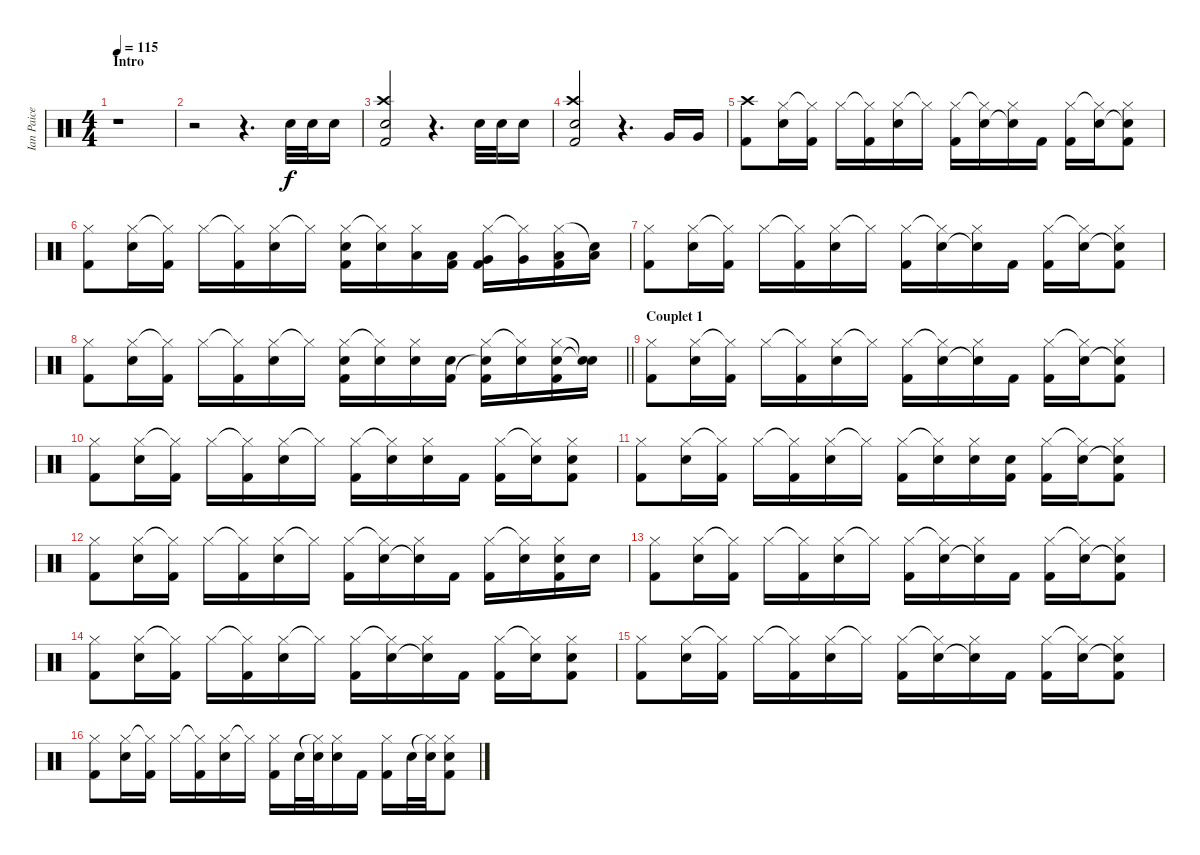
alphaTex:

\track ("Ian Paice" "Ian Paice") {instrument percussion}
\staff {score}
\articulation defaults
\ts (4 4)
\section ("" "Intro")
\tempo 115
\clef neutral
\ks c
r.1{dy f} |
r.2 r.4{d} "Snare (hit) 2".32 "Snare (hit) 2".32 "Snare (hit) 2".16 |
("Crash high (hit)" "Snare (hit) 2" "Kick (hit) 2").2 r.4{d} "Snare (hit) 2".32 "Snare (hit) 2".32 "Snare (hit) 2".16 |
("Crash high (hit)" "Snare (hit) 2" "Kick (hit) 2").2 r.4{d} "Very Low Tom (hit)".16 "Very Low Tom (hit)".16 |
("Crash high (hit)" "Kick (hit) 2").8 ("Hi-Hat (closed)" "Snare (hit) 2").16 ("Hi-Hat (closed)"{t} "Kick (hit) 2").16 "Hi-Hat (closed)".16 ("Hi-Hat (closed)"{t} "Kick (hit) 2").16 ("Hi-Hat (closed)" "Snare (hit) 2").16 "Hi-Hat (closed)"{t}.16 ("Hi-Hat (closed)" "Kick (hit) 2").16 ("Hi-Hat (closed)"{t} "Snare (hit) 2").16 ("Hi-Hat (closed)" "Snare (hit) 2"{t}).16 "Kick (hit) 2".16 ("Hi-Hat (closed)" "Kick (hit) 2").16 ("Hi-Hat (closed)"{t} "Snare (hit) 2").16 ("Hi-Hat (closed)" "Snare (hit) 2"{t} "Kick (hit) 2").8 |
("Hi-Hat (closed)" "Kick (hit) 2").8 ("Hi-Hat (closed)" "Snare (hit) 2").16 ("Hi-Hat (closed)"{t} "Kick (hit) 2").16 "Hi-Hat (closed)".16 ("Hi-Hat (closed)"{t} "Kick (hit) 2").16 ("Hi-Hat (closed)" "Snare (hit) 2").16 "Hi-Hat (closed)"{t}.16 ("Hi-Hat (closed)" "Snare (hit) 2" "Kick (hit) 2").16 ("Hi-Hat (closed)"{t} "Snare (hit) 2").16 ("Hi-Hat (closed)" "Low Tom (hit)").16 ("Low Tom (hit)" "Kick (hit) 2").16 ("Hi-Hat (closed)" "Very Low Tom (hit)" "Kick (hit) 2").16 ("Hi-Hat (closed)"{t} "Very Low Tom (hit)").16 ("Hi-Hat (closed)" "Low Floor Tom (hit)" "Kick (hit) 2").16 ("Snare (hit)"{t} "Low Floor Tom (hit)").16 |
("Hi-Hat (closed)" "Kick (hit) 2").8 ("Hi-Hat (closed)" "Snare (hit) 2").16 ("Hi-Hat (closed)"{t} "Kick (hit) 2").16 "Hi-Hat (closed)".16 ("Hi-Hat (closed)"{t} "Kick (hit) 2").16 ("Hi-Hat (closed)" "Snare (hit) 2").16 "Hi-Hat (closed)"{t}.16 ("Hi-Hat (closed)" "Kick (hit) 2").16 ("Hi-Hat (closed)"{t} "Snare (hit) 2").16 ("Hi-Hat (closed)" "Snare (hit) 2"{t}).16 "Kick (hit) 2".16 ("Hi-Hat (closed)" "Kick (hit) 2").16 ("Hi-Hat (closed)"{t} "Snare (hit) 2").16 ("Hi-Hat (closed)" "Snare (hit) 2"{t} "Kick (hit) 2").8 |
\barLineRight lightlight
("Hi-Hat (closed)" "Kick (hit) 2").8 ("Hi-Hat (closed)" "Snare (hit) 2").16 ("Hi-Hat (closed)"{t} "Kick (hit) 2").16 "Hi-Hat (closed)".16 ("Hi-Hat (closed)"{t} "Kick (hit) 2").16 ("Hi-Hat (closed)" "Snare (hit) 2").16 "Hi-Hat (closed)"{t}.16 ("Hi-Hat (closed)" "Snare (hit) 2" "Kick (hit) 2").16 ("Hi-Hat (closed)"{t} "Snare (hit) 2").16 ("Hi-Hat (closed)" "Snare (hit) 2").16 ("Snare (hit) 2" "Kick (hit) 2").16 ("Hi-Hat (closed)" "Snare (hit) 2"{t} "Kick (hit) 2").16 ("Hi-Hat (closed)"{t} "Snare (hit) 2").16 ("Hi-Hat (closed)" "Snare (hit) 2" "Kick (hit) 2").16 ("Snare (hit)"{t} "Snare (hit) 2"{t}).16 |
\section ("" "Couplet 1")
("Hi-Hat (closed)" "Kick (hit) 2").8 ("Hi-Hat (closed)" "Snare (hit) 2").16 ("Hi-Hat (closed)"{t} "Kick (hit) 2").16 "Hi-Hat (closed)".16 ("Hi-Hat (closed)"{t} "Kick (hit) 2").16 ("Hi-Hat (closed)" "Snare (hit) 2").16 "Hi-Hat (closed)"{t}.16 ("Hi-Hat (closed)" "Kick (hit) 2").16 ("Hi-Hat (closed)"{t} "Snare (hit) 2").16 ("Hi-Hat (closed)" "Snare (hit) 2"{t}).16 "Kick (hit) 2".16 ("Hi-Hat (closed)" "Kick (hit) 2").16 ("Hi-Hat (closed)"{t} "Snare (hit) 2").16 ("Hi-Hat (closed)" "Snare (hit) 2"{t} "Kick (hit) 2").8 |
("Hi-Hat (closed)" "Kick (hit) 2").8 ("Hi-Hat (closed)" "Snare (hit) 2").16 ("Hi-Hat (closed)"{t} "Kick (hit) 2").16 "Hi-Hat (closed)".16 ("Hi-Hat (closed)"{t} "Kick (hit) 2").16 ("Hi-Hat (closed)" "Snare (hit) 2").16 "Hi-Hat (closed)"{t}.16 ("Hi-Hat (closed)" "Kick (hit) 2").16 ("Hi-Hat (closed)"{t} "Snare (hit) 2").16 ("Hi-Hat (closed)" "Snare (hit) 2").16 "Kick (hit) 2".16 ("Hi-Hat (closed)" "Kick (hit) 2").16 ("Hi-Hat (closed)"{t} "Snare (hit) 2").16 ("Hi-Hat (closed)" "Snare (hit) 2" "Kick (hit) 2").8 |
("Hi-Hat (closed)" "Kick (hit) 2").8 ("Hi-Hat (closed)" "Snare (hit) 2").16 ("Hi-Hat (closed)"{t} "Kick (hit) 2").16 "Hi-Hat (closed)".16 ("Hi-Hat (closed)"{t} "Kick (hit) 2").16 ("Hi-Hat (closed)" "Snare (hit) 2").16 "Hi-Hat (closed)"{t}.16 ("Hi-Hat (closed)" "Kick (hit) 2").16 ("Hi-Hat (closed)"{t} "Snare (hit) 2").16 ("Hi-Hat (closed)" "Snare (hit) 2").16 ("Snare (hit) 2" "Kick (hit) 2").16 ("Hi-Hat (closed)" "Kick (hit) 2").16 ("Hi-Hat (closed)"{t} "Snare (hit) 2").16 ("Hi-Hat (closed)" "Snare (hit) 2"{t} "Kick (hit) 2").8 |
("Hi-Hat (closed)" "Kick (hit) 2").8 ("Hi-Hat (closed)" "Snare (hit) 2").16 ("Hi-Hat (closed)"{t} "Kick (hit) 2").16 "Hi-Hat (closed)".16 ("Hi-Hat (closed)"{t} "Kick (hit) 2").16 ("Hi-Hat (closed)" "Snare (hit) 2").16 "Hi-Hat (closed)"{t}.16 ("Hi-Hat (closed)" "Kick (hit) 2").16 ("Hi-Hat (closed)"{t} "Snare (hit) 2").16 ("Hi-Hat (closed)" "Snare (hit) 2"{t}).16 "Kick (hit) 2".16 ("Hi-Hat (closed)" "Kick (hit) 2").16 ("Hi-Hat (closed)"{t} "Snare (hit) 2").16 ("Hi-Hat (closed)" "Snare (hit) 2" "Kick (hit) 2").16 "Snare (hit) 2".16 |
("Hi-Hat (closed)" "Kick (hit) 2").8 ("Hi-Hat (closed)" "Snare (hit) 2").16 ("Hi-Hat (closed)"{t} "Kick (hit) 2").16 "Hi-Hat (closed)".16 ("Hi-Hat (closed)"{t} "Kick (hit) 2").16 ("Hi-Hat (closed)" "Snare (hit) 2").16 "Hi-Hat (closed)"{t}.16 ("Hi-Hat (closed)" "Kick (hit) 2").16 ("Hi-Hat (closed)"{t} "Snare (hit) 2").16 ("Hi-Hat (closed)" "Snare (hit) 2"{t}).16 "Kick (hit) 2".16 ("Hi-Hat (closed)" "Kick (hit) 2").16 ("Hi-Hat (closed)"{t} "Snare (hit) 2").16 ("Hi-Hat (closed)" "Snare (hit) 2"{t} "Kick (hit) 2").8 |
("Hi-Hat (closed)" "Kick (hit) 2").8 ("Hi-Hat (closed)" "Snare (hit) 2").16 ("Hi-Hat (closed)"{t} "Kick (hit) 2").16 "Hi-Hat (closed)".16 ("Hi-Hat (closed)"{t} "Kick (hit) 2").16 ("Hi-Hat (closed)" "Snare (hit) 2").16 "Hi-Hat (closed)"{t}.16 ("Hi-Hat (closed)" "Kick (hit) 2").16 ("Hi-Hat (closed)"{t} "Snare (hit) 2").16 ("Hi-Hat (closed)" "Snare (hit) 2"{t}).16 "Kick (hit) 2".16 ("Hi-Hat (closed)" "Kick (hit) 2").16 ("Hi-Hat (closed)"{t} "Snare (hit) 2").16 ("Hi-Hat (closed)" "Snare (hit) 2" "Kick (hit) 2").8 |
("Hi-Hat (closed)" "Kick (hit) 2").8 ("Hi-Hat (closed)" "Snare (hit) 2").16 ("Hi-Hat (closed)"{t} "Kick (hit) 2").16 "Hi-Hat (closed)".16 ("Hi-Hat (closed)"{t} "Kick (hit) 2").16 ("Hi-Hat (closed)" "Snare (hit) 2").16 "Hi-Hat (closed)"{t}.16 ("Hi-Hat (closed)" "Kick (hit) 2").16 ("Hi-Hat (closed)"{t} "Snare (hit) 2").16 ("Hi-Hat (closed)" "Snare (hit) 2"{t}).16 "Kick (hit) 2".16 ("Hi-Hat (closed)" "Kick (hit) 2").16 ("Hi-Hat (closed)"{t} "Snare (hit) 2").16 ("Hi-Hat (closed)" "Snare (hit) 2"{t} "Kick (hit) 2").8 |
("Hi-Hat (closed)" "Kick (hit) 2").8 ("Hi-Hat (closed)" "Snare (hit) 2").16 ("Hi-Hat (closed)"{t} "Kick (hit) 2").16 "Hi-Hat (closed)".16 ("Hi-Hat (closed)"{t} "Kick (hit) 2").16 ("Hi-Hat (closed)" "Snare (hit) 2").16 "Hi-Hat (closed)"{t}.16 ("Hi-Hat (closed)" "Kick (hit) 2").16 "Snare (hit) 2".32 ("Hi-Hat (closed)"{t} "Snare (hit) 2").32 ("Hi-Hat (closed)" "Snare (hit) 2").16 "Kick (hit) 2".16 ("Hi-Hat (closed)" "Kick (hit) 2").16 "Snare (hit) 2".32 ("Hi-Hat (closed)"{t} "Snare (hit) 2").32 ("Hi-Hat (closed)" "Snare (hit) 2" "Kick (hit) 2").8
